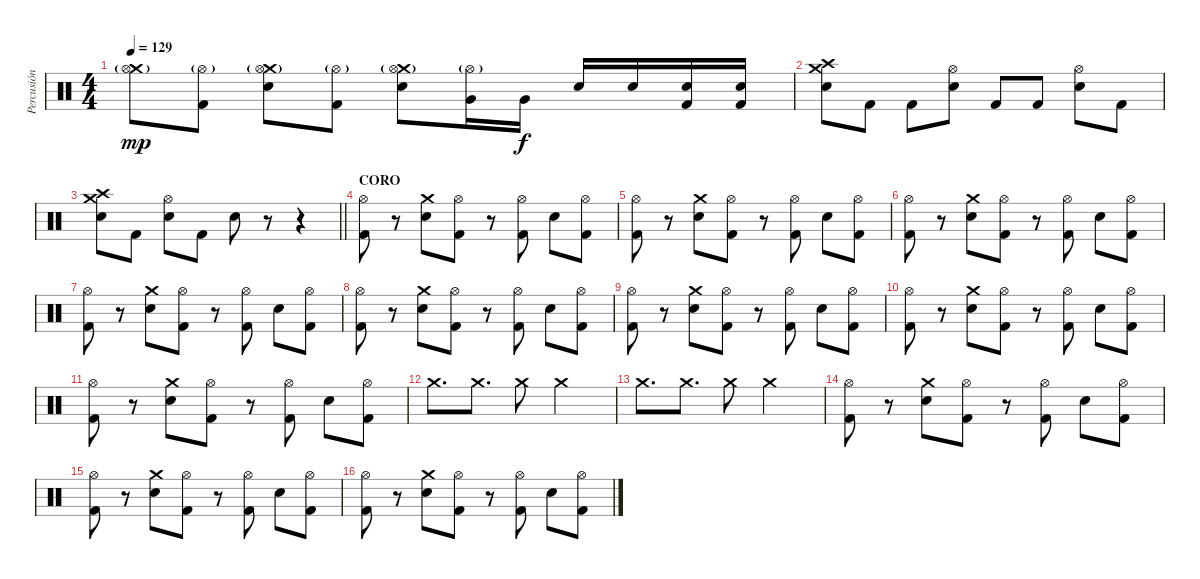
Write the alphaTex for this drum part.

\track ("Percusión" "Percusión") {instrument percussion}
\staff {score}
\articulation defaults
\ts (4 4)
\tempo 129
\clef neutral
\ks c
("Crash medium (hit)"{g} "Hi-Hat (open)").8{dy mp} ("Hi-Hat (open)"{g} "Kick (hit) 2").8 ("Crash medium (hit)"{g} "Hi-Hat (open)" "Snare (hit) 2").8 ("Hi-Hat (open)"{g} "Kick (hit) 2").8 ("Crash medium (hit)"{g} "Hi-Hat (open)" "Snare (hit) 2").8 ("Hi-Hat (open)"{g} "Very Low Tom (hit)").16 "Very Low Tom (hit)".16{dy f} "Snare (hit) 2".16 "Snare (hit) 2".16 ("Snare (hit) 2" "Kick (hit) 2").16 ("Snare (hit) 2" "Kick (hit) 2").16 |
("Crash medium (hit)" "Crash high (hit)" "Electric Snare (hit)").8 "Kick (hit) 2".8 "Kick (hit) 2".8 ("Hi-Hat (open)" "Electric Snare (hit)").8 "Kick (hit) 2".8 "Kick (hit) 2".8 ("Hi-Hat (open)" "Electric Snare (hit)").8 "Kick (hit) 2".8 |
\barLineRight lightlight
("Crash high (hit)" "Crash medium (hit)" "Electric Snare (hit)").8 "Kick (hit) 2".8 ("Hi-Hat (open)" "Electric Snare (hit)").8 "Kick (hit) 2".8 "Electric Snare (hit)".8 r.8 r.4 |
\section ("" "CORO")
("Hi-Hat (open)" "Kick (hit) 2").8 r.8 ("Crash medium (hit)" "Snare (hit) 2").8 ("Hi-Hat (open)" "Kick (hit) 2").8 r.8 ("Hi-Hat (open)" "Kick (hit) 2").8 "Snare (hit) 2".8 ("Hi-Hat (open)" "Kick (hit) 2").8 |
("Hi-Hat (open)" "Kick (hit) 2").8 r.8 ("Crash medium (hit)" "Snare (hit) 2").8 ("Hi-Hat (open)" "Kick (hit) 2").8 r.8 ("Hi-Hat (open)" "Kick (hit) 2").8 "Snare (hit) 2".8 ("Hi-Hat (open)" "Kick (hit) 2").8 |
("Hi-Hat (open)" "Kick (hit) 2").8 r.8 ("Crash medium (hit)" "Snare (hit) 2").8 ("Hi-Hat (open)" "Kick (hit) 2").8 r.8 ("Hi-Hat (open)" "Kick (hit) 2").8 "Snare (hit) 2".8 ("Hi-Hat (open)" "Kick (hit) 2").8 |
("Hi-Hat (open)" "Kick (hit) 2").8 r.8 ("Crash medium (hit)" "Snare (hit) 2").8 ("Hi-Hat (open)" "Kick (hit) 2").8 r.8 ("Hi-Hat (open)" "Kick (hit) 2").8 "Snare (hit) 2".8 ("Hi-Hat (open)" "Kick (hit) 2").8 |
("Hi-Hat (open)" "Kick (hit) 2").8 r.8 ("Crash medium (hit)" "Snare (hit) 2").8 ("Hi-Hat (open)" "Kick (hit) 2").8 r.8 ("Hi-Hat (open)" "Kick (hit) 2").8 "Snare (hit) 2".8 ("Hi-Hat (open)" "Kick (hit) 2").8 |
("Hi-Hat (open)" "Kick (hit) 2").8 r.8 ("Crash medium (hit)" "Snare (hit) 2").8 ("Hi-Hat (open)" "Kick (hit) 2").8 r.8 ("Hi-Hat (open)" "Kick (hit) 2").8 "Snare (hit) 2".8 ("Hi-Hat (open)" "Kick (hit) 2").8 |
("Hi-Hat (open)" "Kick (hit) 2").8 r.8 ("Crash medium (hit)" "Snare (hit) 2").8 ("Hi-Hat (open)" "Kick (hit) 2").8 r.8 ("Hi-Hat (open)" "Kick (hit) 2").8 "Snare (hit) 2".8 ("Hi-Hat (open)" "Kick (hit) 2").8 |
("Hi-Hat (open)" "Kick (hit) 2").8 r.8 ("Crash medium (hit)" "Snare (hit) 2").8 ("Hi-Hat (open)" "Kick (hit) 2").8 r.8 ("Hi-Hat (open)" "Kick (hit) 2").8 "Snare (hit) 2".8 ("Hi-Hat (open)" "Kick (hit) 2").8 |
"Crash medium (hit)".8{d} "Crash medium (hit)".8{d} "Crash medium (hit)".8 "Crash medium (hit)".2 |
"Crash medium (hit)".8{d} "Crash medium (hit)".8{d} "Crash medium (hit)".8 "Crash medium (hit)".2 |
("Hi-Hat (open)" "Kick (hit) 2").8 r.8 ("Crash medium (hit)" "Snare (hit) 2").8 ("Hi-Hat (open)" "Kick (hit) 2").8 r.8 ("Hi-Hat (open)" "Kick (hit) 2").8 "Snare (hit) 2".8 ("Hi-Hat (open)" "Kick (hit) 2").8 |
("Hi-Hat (open)" "Kick (hit) 2").8 r.8 ("Crash medium (hit)" "Snare (hit) 2").8 ("Hi-Hat (open)" "Kick (hit) 2").8 r.8 ("Hi-Hat (open)" "Kick (hit) 2").8 "Snare (hit) 2".8 ("Hi-Hat (open)" "Kick (hit) 2").8 |
("Hi-Hat (open)" "Kick (hit) 2").8 r.8 ("Crash medium (hit)" "Snare (hit) 2").8 ("Hi-Hat (open)" "Kick (hit) 2").8 r.8 ("Hi-Hat (open)" "Kick (hit) 2").8 "Snare (hit) 2".8 ("Hi-Hat (open)" "Kick (hit) 2").8
